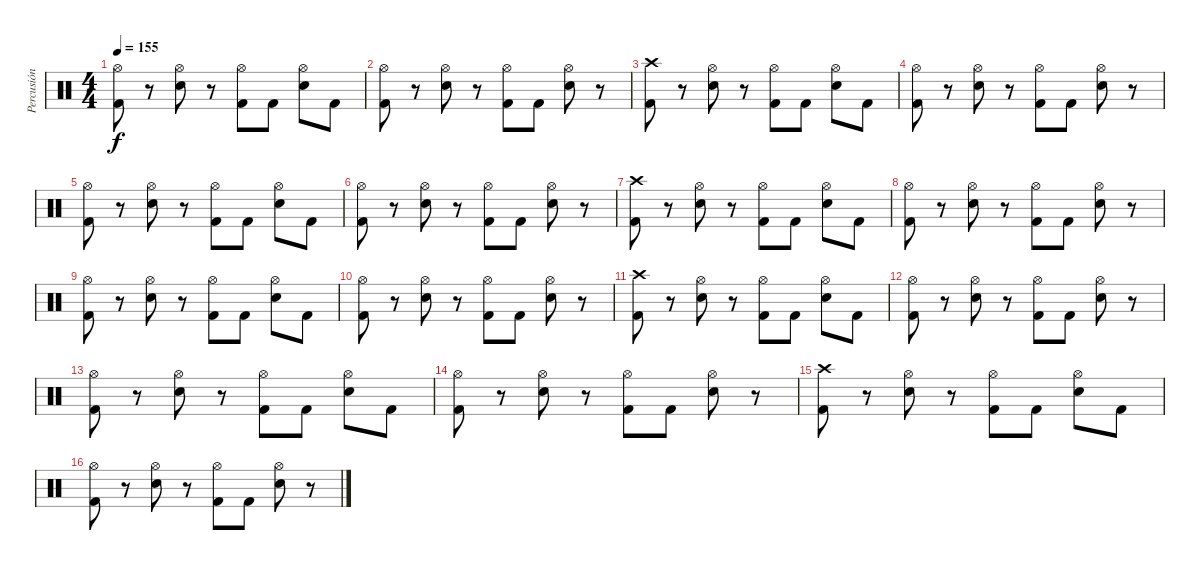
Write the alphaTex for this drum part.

\track ("Percusión" "Percusión") {instrument percussion}
\staff {score}
\articulation defaults
\ts (4 4)
\tempo 155
\clef neutral
\ks c
("Hi-Hat (open)" "Kick (hit) 2").8{dy f} r.8 ("Hi-Hat (open)" "Electric Snare (hit)").8 r.8 ("Hi-Hat (open)" "Kick (hit) 2").8 "Kick (hit) 2".8 ("Hi-Hat (open)" "Electric Snare (hit)").8 "Kick (hit) 2".8 |
("Hi-Hat (open)" "Kick (hit) 2").8 r.8 ("Hi-Hat (open)" "Electric Snare (hit)").8 r.8 ("Hi-Hat (open)" "Kick (hit) 2").8 "Kick (hit) 2".8 ("Hi-Hat (open)" "Electric Snare (hit)").8 r.8 |
("Crash high (hit)" "Kick (hit) 2").8 r.8 ("Hi-Hat (open)" "Electric Snare (hit)").8 r.8 ("Hi-Hat (open)" "Kick (hit) 2").8 "Kick (hit) 2".8 ("Hi-Hat (open)" "Electric Snare (hit)").8 "Kick (hit) 2".8 |
("Hi-Hat (open)" "Kick (hit) 2").8 r.8 ("Hi-Hat (open)" "Electric Snare (hit)").8 r.8 ("Hi-Hat (open)" "Kick (hit) 2").8 "Kick (hit) 2".8 ("Hi-Hat (open)" "Electric Snare (hit)").8 r.8 |
("Hi-Hat (open)" "Kick (hit) 2").8 r.8 ("Hi-Hat (open)" "Electric Snare (hit)").8 r.8 ("Hi-Hat (open)" "Kick (hit) 2").8 "Kick (hit) 2".8 ("Hi-Hat (open)" "Electric Snare (hit)").8 "Kick (hit) 2".8 |
("Hi-Hat (open)" "Kick (hit) 2").8 r.8 ("Hi-Hat (open)" "Electric Snare (hit)").8 r.8 ("Hi-Hat (open)" "Kick (hit) 2").8 "Kick (hit) 2".8 ("Hi-Hat (open)" "Electric Snare (hit)").8 r.8 |
("Crash high (hit)" "Kick (hit) 2").8 r.8 ("Hi-Hat (open)" "Electric Snare (hit)").8 r.8 ("Hi-Hat (open)" "Kick (hit) 2").8 "Kick (hit) 2".8 ("Hi-Hat (open)" "Electric Snare (hit)").8 "Kick (hit) 2".8 |
("Hi-Hat (open)" "Kick (hit) 2").8 r.8 ("Hi-Hat (open)" "Electric Snare (hit)").8 r.8 ("Hi-Hat (open)" "Kick (hit) 2").8 "Kick (hit) 2".8 ("Hi-Hat (open)" "Electric Snare (hit)").8 r.8 |
("Hi-Hat (open)" "Kick (hit) 2").8 r.8 ("Hi-Hat (open)" "Electric Snare (hit)").8 r.8 ("Hi-Hat (open)" "Kick (hit) 2").8 "Kick (hit) 2".8 ("Hi-Hat (open)" "Electric Snare (hit)").8 "Kick (hit) 2".8 |
("Hi-Hat (open)" "Kick (hit) 2").8 r.8 ("Hi-Hat (open)" "Electric Snare (hit)").8 r.8 ("Hi-Hat (open)" "Kick (hit) 2").8 "Kick (hit) 2".8 ("Hi-Hat (open)" "Electric Snare (hit)").8 r.8 |
("Crash high (hit)" "Kick (hit) 2").8 r.8 ("Hi-Hat (open)" "Electric Snare (hit)").8 r.8 ("Hi-Hat (open)" "Kick (hit) 2").8 "Kick (hit) 2".8 ("Hi-Hat (open)" "Electric Snare (hit)").8 "Kick (hit) 2".8 |
("Hi-Hat (open)" "Kick (hit) 2").8 r.8 ("Hi-Hat (open)" "Electric Snare (hit)").8 r.8 ("Hi-Hat (open)" "Kick (hit) 2").8 "Kick (hit) 2".8 ("Hi-Hat (open)" "Electric Snare (hit)").8 r.8 |
("Hi-Hat (open)" "Kick (hit) 2").8 r.8 ("Hi-Hat (open)" "Electric Snare (hit)").8 r.8 ("Hi-Hat (open)" "Kick (hit) 2").8 "Kick (hit) 2".8 ("Hi-Hat (open)" "Electric Snare (hit)").8 "Kick (hit) 2".8 |
("Hi-Hat (open)" "Kick (hit) 2").8 r.8 ("Hi-Hat (open)" "Electric Snare (hit)").8 r.8 ("Hi-Hat (open)" "Kick (hit) 2").8 "Kick (hit) 2".8 ("Hi-Hat (open)" "Electric Snare (hit)").8 r.8 |
("Crash high (hit)" "Kick (hit) 2").8 r.8 ("Hi-Hat (open)" "Electric Snare (hit)").8 r.8 ("Hi-Hat (open)" "Kick (hit) 2").8 "Kick (hit) 2".8 ("Hi-Hat (open)" "Electric Snare (hit)").8 "Kick (hit) 2".8 |
("Hi-Hat (open)" "Kick (hit) 2").8 r.8 ("Hi-Hat (open)" "Electric Snare (hit)").8 r.8 ("Hi-Hat (open)" "Kick (hit) 2").8 "Kick (hit) 2".8 ("Hi-Hat (open)" "Electric Snare (hit)").8 r.8
